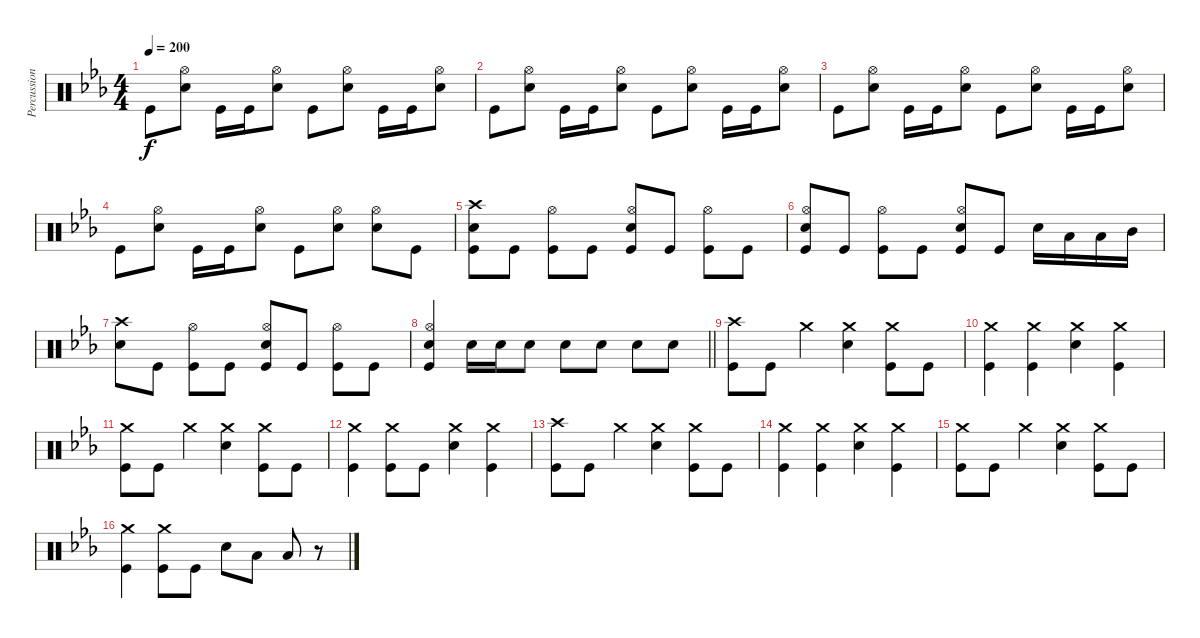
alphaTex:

\track ("Percussion" "Percussion") {instrument percussion}
\staff {score}
\articulation defaults
\ts (4 4)
\tempo 200
\clef neutral
\ks eb "Kick (hit)".8{dy f}
("Hi-Hat (open)" "Snare (hit) 2").8 "Kick (hit)".16 "Kick (hit)".16 ("Hi-Hat (open)" "Snare (hit) 2").8 "Kick (hit)".8 ("Hi-Hat (open)" "Snare (hit) 2").8 "Kick (hit)".16 "Kick (hit)".16 ("Hi-Hat (open)" "Snare (hit) 2").8 |
"Kick (hit)".8 ("Hi-Hat (open)" "Snare (hit) 2").8 "Kick (hit)".16 "Kick (hit)".16 ("Hi-Hat (open)" "Snare (hit) 2").8 "Kick (hit)".8 ("Hi-Hat (open)" "Snare (hit) 2").8 "Kick (hit)".16 "Kick (hit)".16 ("Hi-Hat (open)" "Snare (hit) 2").8 |
"Kick (hit)".8 ("Hi-Hat (open)" "Snare (hit) 2").8 "Kick (hit)".16 "Kick (hit)".16 ("Hi-Hat (open)" "Snare (hit) 2").8 "Kick (hit)".8 ("Hi-Hat (open)" "Snare (hit) 2").8 "Kick (hit)".16 "Kick (hit)".16 ("Hi-Hat (open)" "Snare (hit) 2").8 |
"Kick (hit)".8 ("Hi-Hat (open)" "Snare (hit) 2").8 "Kick (hit)".16 "Kick (hit)".16 ("Hi-Hat (open)" "Snare (hit) 2").8 "Kick (hit)".8 ("Hi-Hat (open)" "Snare (hit) 2").8 ("Hi-Hat (open)" "Snare (hit) 2").8 "Kick (hit)".8 |
("Crash high (hit)" "Snare (hit) 2" "Kick (hit)").8 "Kick (hit)".8 ("Hi-Hat (open)" "Kick (hit)").8 "Kick (hit)".8 ("Hi-Hat (open)" "Snare (hit) 2" "Kick (hit)").8 "Kick (hit)".8 ("Hi-Hat (open)" "Kick (hit)").8 "Kick (hit)".8 |
("Hi-Hat (open)" "Snare (hit) 2" "Kick (hit)").8 "Kick (hit)".8 ("Hi-Hat (open)" "Kick (hit)").8 "Kick (hit)".8 ("Hi-Hat (open)" "Snare (hit) 2" "Kick (hit)").8 "Kick (hit)".8 "Snare (hit) 2".16 "Low Tom (hit)".16 "Low Tom (hit)".16 "Mid Tom (hit)".16 |
("Crash high (hit)" "Snare (hit) 2").8 "Kick (hit)".8 ("Hi-Hat (open)" "Kick (hit)").8 "Kick (hit)".8 ("Hi-Hat (open)" "Snare (hit) 2" "Kick (hit)").8 "Kick (hit)".8 ("Hi-Hat (open)" "Kick (hit)").8 "Kick (hit)".8 |
\barLineRight lightlight
("Hi-Hat (open)" "Snare (hit) 2" "Kick (hit)").4 "Snare (hit) 2".16 "Snare (hit) 2".16 "Snare (hit) 2".8 "Snare (hit) 2".8 "Snare (hit) 2".8 "Snare (hit) 2".8 "Snare (hit) 2".8 |
("Crash high (hit)" "Kick (hit)").8 "Kick (hit)".8 "Crash medium (hit)".4 ("Crash medium (hit)" "Snare (hit) 2").4 ("Crash medium (hit)" "Kick (hit)").8 "Kick (hit)".8 |
("Crash medium (hit)" "Kick (hit)").4 ("Crash medium (hit)" "Kick (hit)").4 ("Crash medium (hit)" "Snare (hit) 2").4 ("Crash medium (hit)" "Kick (hit)").4 |
("Crash medium (hit)" "Kick (hit)").8 "Kick (hit)".8 "Crash medium (hit)".4 ("Crash medium (hit)" "Snare (hit) 2").4 ("Crash medium (hit)" "Kick (hit)").8 "Kick (hit)".8 |
("Crash medium (hit)" "Kick (hit)").4 ("Crash medium (hit)" "Kick (hit)").8 "Kick (hit)".8 ("Crash medium (hit)" "Snare (hit) 2").4 ("Crash medium (hit)" "Kick (hit)").4 |
("Crash high (hit)" "Kick (hit)").8 "Kick (hit)".8 "Crash medium (hit)".4 ("Crash medium (hit)" "Snare (hit) 2").4 ("Crash medium (hit)" "Kick (hit)").8 "Kick (hit)".8 |
("Crash medium (hit)" "Kick (hit)").4 ("Crash medium (hit)" "Kick (hit)").4 ("Crash medium (hit)" "Snare (hit) 2").4 ("Crash medium (hit)" "Kick (hit)").4 |
("Crash medium (hit)" "Kick (hit)").8 "Kick (hit)".8 "Crash medium (hit)".4 ("Crash medium (hit)" "Snare (hit) 2").4 ("Crash medium (hit)" "Kick (hit)").8 "Kick (hit)".8 |
("Crash medium (hit)" "Kick (hit)").4 ("Crash medium (hit)" "Kick (hit)").8 "Kick (hit)".8 "Snare (hit) 2".8 "Low Tom (hit)".8 "Low Floor Tom (hit)".8 r.8
